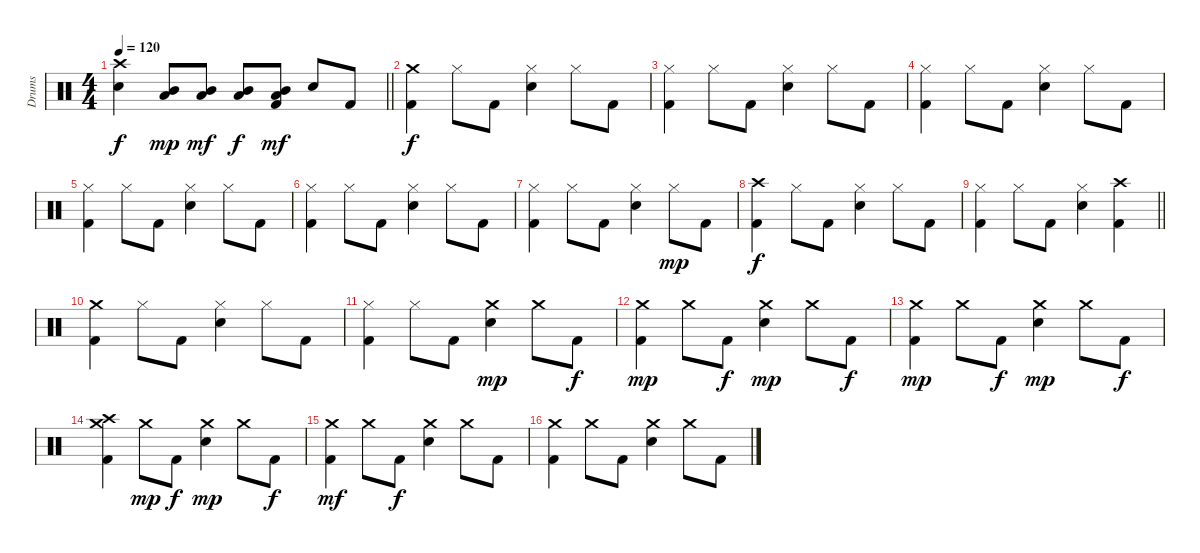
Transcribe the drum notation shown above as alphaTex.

\track ("Drums" "Drums") {instrument percussion}
\staff {score}
\articulation defaults
\ts (4 4)
\tempo 120
\clef neutral
\barLineRight lightlight
\ks c
("Crash high (hit)" "Electric Snare (hit)").4{dy f} ("Low Tom (hit)" "Mid Tom (hit)").8{dy mp} ("Low Tom (hit)" "Mid Tom (hit)").8{dy mf} ("Low Tom (hit)" "Mid Tom (hit)").8{dy f} ("Low Tom (hit)" "Mid Tom (hit)" "Kick (hit) 2").8{dy mf} "Electric Snare (hit)".8 "Kick (hit) 2".8 |
("Crash medium (hit)" "Kick (hit) 2").4{dy f} "Hi-Hat (closed)".8 "Kick (hit) 2".8 ("Hi-Hat (closed)" "Electric Snare (hit)").4 "Hi-Hat (closed)".8 "Kick (hit) 2".8 |
("Hi-Hat (closed)" "Kick (hit) 2").4 "Hi-Hat (closed)".8 "Kick (hit) 2".8 ("Hi-Hat (closed)" "Electric Snare (hit)").4 "Hi-Hat (closed)".8 "Kick (hit) 2".8 |
("Hi-Hat (closed)" "Kick (hit) 2").4 "Hi-Hat (closed)".8 "Kick (hit) 2".8 ("Hi-Hat (closed)" "Electric Snare (hit)").4 "Hi-Hat (closed)".8 "Kick (hit) 2".8 |
("Hi-Hat (closed)" "Kick (hit) 2").4 "Hi-Hat (closed)".8 "Kick (hit) 2".8 ("Hi-Hat (closed)" "Electric Snare (hit)").4 "Hi-Hat (closed)".8 "Kick (hit) 2".8 |
("Hi-Hat (closed)" "Kick (hit) 2").4 "Hi-Hat (closed)".8 "Kick (hit) 2".8 ("Hi-Hat (closed)" "Electric Snare (hit)").4 "Hi-Hat (closed)".8 "Kick (hit) 2".8 |
("Hi-Hat (closed)" "Kick (hit) 2").4 "Hi-Hat (closed)".8 "Kick (hit) 2".8 ("Hi-Hat (closed)" "Electric Snare (hit)").4 "Hi-Hat (closed)".8{dy mp} "Kick (hit) 2".8 |
("Crash high (hit)" "Kick (hit) 2").4{dy f} "Hi-Hat (closed)".8 "Kick (hit) 2".8 ("Hi-Hat (closed)" "Electric Snare (hit)").4 "Hi-Hat (closed)".8 "Kick (hit) 2".8 |
\barLineRight lightlight
("Hi-Hat (closed)" "Kick (hit) 2").4 "Hi-Hat (closed)".8 "Kick (hit) 2".8 ("Hi-Hat (closed)" "Electric Snare (hit)").4 ("Crash high (hit)" "Kick (hit) 2").4 |
("Crash medium (hit)" "Kick (hit) 2").4 "Hi-Hat (closed)".8 "Kick (hit) 2".8 ("Hi-Hat (closed)" "Electric Snare (hit)").4 "Hi-Hat (closed)".8 "Kick (hit) 2".8 |
("Hi-Hat (closed)" "Kick (hit) 2").4 "Hi-Hat (closed)".8 "Kick (hit) 2".8 ("Crash medium (hit)" "Electric Snare (hit)").4{dy mp} "Crash medium (hit)".8 "Kick (hit) 2".8{dy f} |
("Crash medium (hit)" "Kick (hit) 2").4{dy mp} "Crash medium (hit)".8 "Kick (hit) 2".8{dy f} ("Crash medium (hit)" "Electric Snare (hit)").4{dy mp} "Crash medium (hit)".8 "Kick (hit) 2".8{dy f} |
("Crash medium (hit)" "Kick (hit) 2").4{dy mp} "Crash medium (hit)".8 "Kick (hit) 2".8{dy f} ("Crash medium (hit)" "Electric Snare (hit)").4{dy mp} "Crash medium (hit)".8 "Kick (hit) 2".8{dy f} |
("Crash high (hit)" "Crash medium (hit)" "Kick (hit) 2").4 "Crash medium (hit)".8{dy mp} "Kick (hit) 2".8{dy f} ("Crash medium (hit)" "Electric Snare (hit)").4{dy mp} "Crash medium (hit)".8 "Kick (hit) 2".8{dy f} |
("Crash medium (hit)" "Kick (hit) 2").4{dy mf} "Crash medium (hit)".8 "Kick (hit) 2".8{dy f} ("Crash medium (hit)" "Electric Snare (hit)").4 "Crash medium (hit)".8 "Kick (hit) 2".8 |
("Crash medium (hit)" "Kick (hit) 2").4 "Crash medium (hit)".8 "Kick (hit) 2".8 ("Crash medium (hit)" "Electric Snare (hit)").4 "Crash medium (hit)".8 "Kick (hit) 2".8
